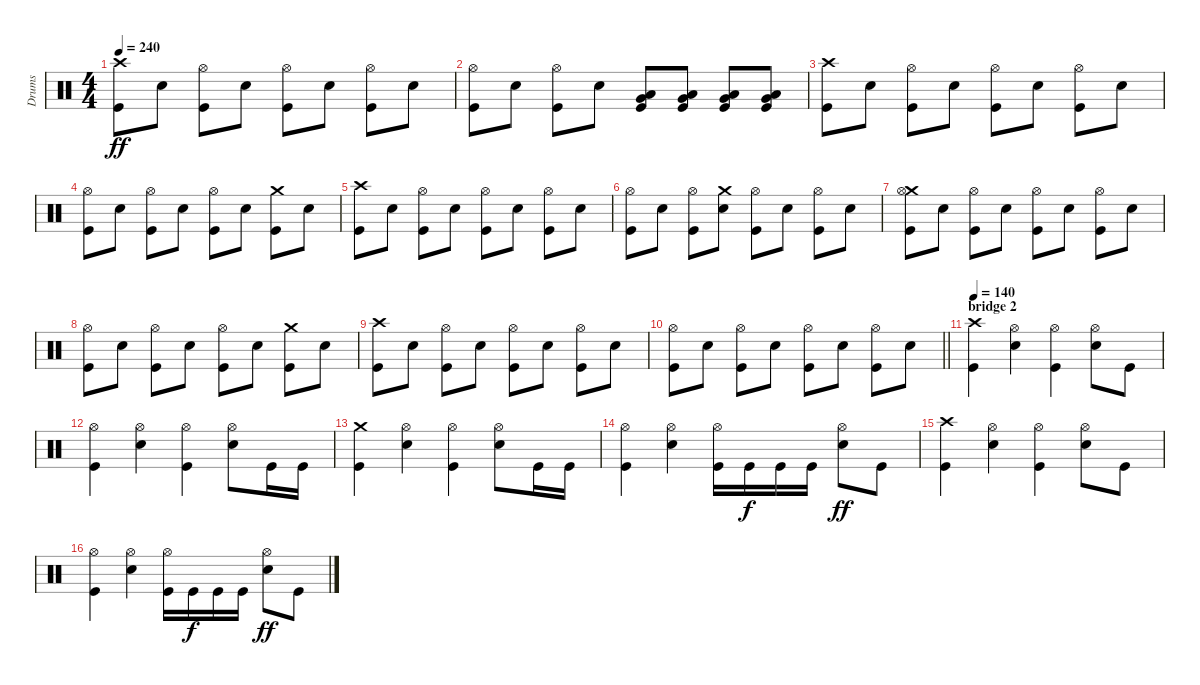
\track ("Drums" "Drums") {instrument percussion}
\staff {score}
\articulation defaults
\ts (4 4)
\tempo 240
\clef neutral
\ks c
("Crash high (hit)" "Kick (hit)").8{dy ff} "Electric Snare (hit)".8 ("Hi-Hat (open)" "Kick (hit)").8 "Electric Snare (hit)".8 ("Hi-Hat (open)" "Kick (hit)").8 "Electric Snare (hit)".8 ("Hi-Hat (open)" "Kick (hit)").8 "Electric Snare (hit)".8 |
("Hi-Hat (open)" "Kick (hit)").8 "Electric Snare (hit)".8 ("Hi-Hat (open)" "Kick (hit)").8 "Electric Snare (hit)".8 ("Very Low Tom (hit)" "Low Floor Tom (hit)" "Kick (hit)").8 ("Very Low Tom (hit)" "Low Floor Tom (hit)" "Kick (hit)").8 ("Very Low Tom (hit)" "Low Floor Tom (hit)" "Kick (hit)").8 ("Very Low Tom (hit)" "Low Floor Tom (hit)" "Kick (hit)").8 |
("Crash high (hit)" "Kick (hit)").8 "Electric Snare (hit)".8 ("Hi-Hat (open)" "Kick (hit)").8 "Electric Snare (hit)".8 ("Hi-Hat (open)" "Kick (hit)").8 "Electric Snare (hit)".8 ("Hi-Hat (open)" "Kick (hit)").8 "Electric Snare (hit)".8 |
("Hi-Hat (open)" "Kick (hit)").8 "Electric Snare (hit)".8 ("Hi-Hat (open)" "Kick (hit)").8 "Electric Snare (hit)".8 ("Hi-Hat (open)" "Kick (hit)").8 "Electric Snare (hit)".8 ("Crash medium (hit)" "Kick (hit)").8 "Electric Snare (hit)".8 |
("Crash high (hit)" "Kick (hit)").8 "Electric Snare (hit)".8 ("Hi-Hat (open)" "Kick (hit)").8 "Electric Snare (hit)".8 ("Hi-Hat (open)" "Kick (hit)").8 "Electric Snare (hit)".8 ("Hi-Hat (open)" "Kick (hit)").8 "Electric Snare (hit)".8 |
("Hi-Hat (open)" "Kick (hit)").8 "Electric Snare (hit)".8 ("Hi-Hat (open)" "Kick (hit)").8 ("Crash medium (hit)" "Electric Snare (hit)").8 ("Hi-Hat (open)" "Kick (hit)").8 "Electric Snare (hit)".8 ("Hi-Hat (open)" "Kick (hit)").8 "Electric Snare (hit)".8 |
("Crash medium (hit)" "Hi-Hat (open)" "Kick (hit)").8 "Electric Snare (hit)".8 ("Hi-Hat (open)" "Kick (hit)").8 "Electric Snare (hit)".8 ("Hi-Hat (open)" "Kick (hit)").8 "Electric Snare (hit)".8 ("Hi-Hat (open)" "Kick (hit)").8 "Electric Snare (hit)".8 |
("Hi-Hat (open)" "Kick (hit)").8 "Electric Snare (hit)".8 ("Hi-Hat (open)" "Kick (hit)").8 "Electric Snare (hit)".8 ("Hi-Hat (open)" "Kick (hit)").8 "Electric Snare (hit)".8 ("Crash medium (hit)" "Kick (hit)").8 "Electric Snare (hit)".8 |
("Crash high (hit)" "Kick (hit)").8 "Electric Snare (hit)".8 ("Hi-Hat (open)" "Kick (hit)").8 "Electric Snare (hit)".8 ("Hi-Hat (open)" "Kick (hit)").8 "Electric Snare (hit)".8 ("Hi-Hat (open)" "Kick (hit)").8 "Electric Snare (hit)".8 |
\barLineRight lightlight
("Hi-Hat (open)" "Kick (hit)").8 "Electric Snare (hit)".8 ("Hi-Hat (open)" "Kick (hit)").8 "Electric Snare (hit)".8 ("Hi-Hat (open)" "Kick (hit)").8 "Electric Snare (hit)".8 ("Hi-Hat (open)" "Kick (hit)").8 "Electric Snare (hit)".8 |
\section ("" "bridge 2")
\tempo 140
("Crash high (hit)" "Kick (hit)").4 ("Hi-Hat (open)" "Electric Snare (hit)").4 ("Hi-Hat (open)" "Kick (hit)").4 ("Hi-Hat (open)" "Electric Snare (hit)").8 "Kick (hit)".8 |
("Hi-Hat (open)" "Kick (hit)").4 ("Hi-Hat (open)" "Electric Snare (hit)").4 ("Hi-Hat (open)" "Kick (hit)").4 ("Hi-Hat (open)" "Electric Snare (hit)").8 "Kick (hit)".16 "Kick (hit)".16 |
("Crash medium (hit)" "Kick (hit)").4 ("Hi-Hat (open)" "Electric Snare (hit)").4 ("Hi-Hat (open)" "Kick (hit)").4 ("Hi-Hat (open)" "Electric Snare (hit)").8 "Kick (hit)".16 "Kick (hit)".16 |
("Hi-Hat (open)" "Kick (hit)").4 ("Hi-Hat (open)" "Electric Snare (hit)").4 ("Hi-Hat (open)" "Kick (hit)").16 "Kick (hit)".16{dy f} "Kick (hit)".16 "Kick (hit)".16 ("Hi-Hat (open)" "Electric Snare (hit)").8{dy ff} "Kick (hit)".8 |
("Crash high (hit)" "Kick (hit)").4 ("Hi-Hat (open)" "Electric Snare (hit)").4 ("Hi-Hat (open)" "Kick (hit)").4 ("Hi-Hat (open)" "Electric Snare (hit)").8 "Kick (hit)".8 |
("Hi-Hat (open)" "Kick (hit)").4 ("Hi-Hat (open)" "Electric Snare (hit)").4 ("Hi-Hat (open)" "Kick (hit)").16 "Kick (hit)".16{dy f} "Kick (hit)".16 "Kick (hit)".16 ("Hi-Hat (open)" "Electric Snare (hit)").8{dy ff} "Kick (hit)".8
